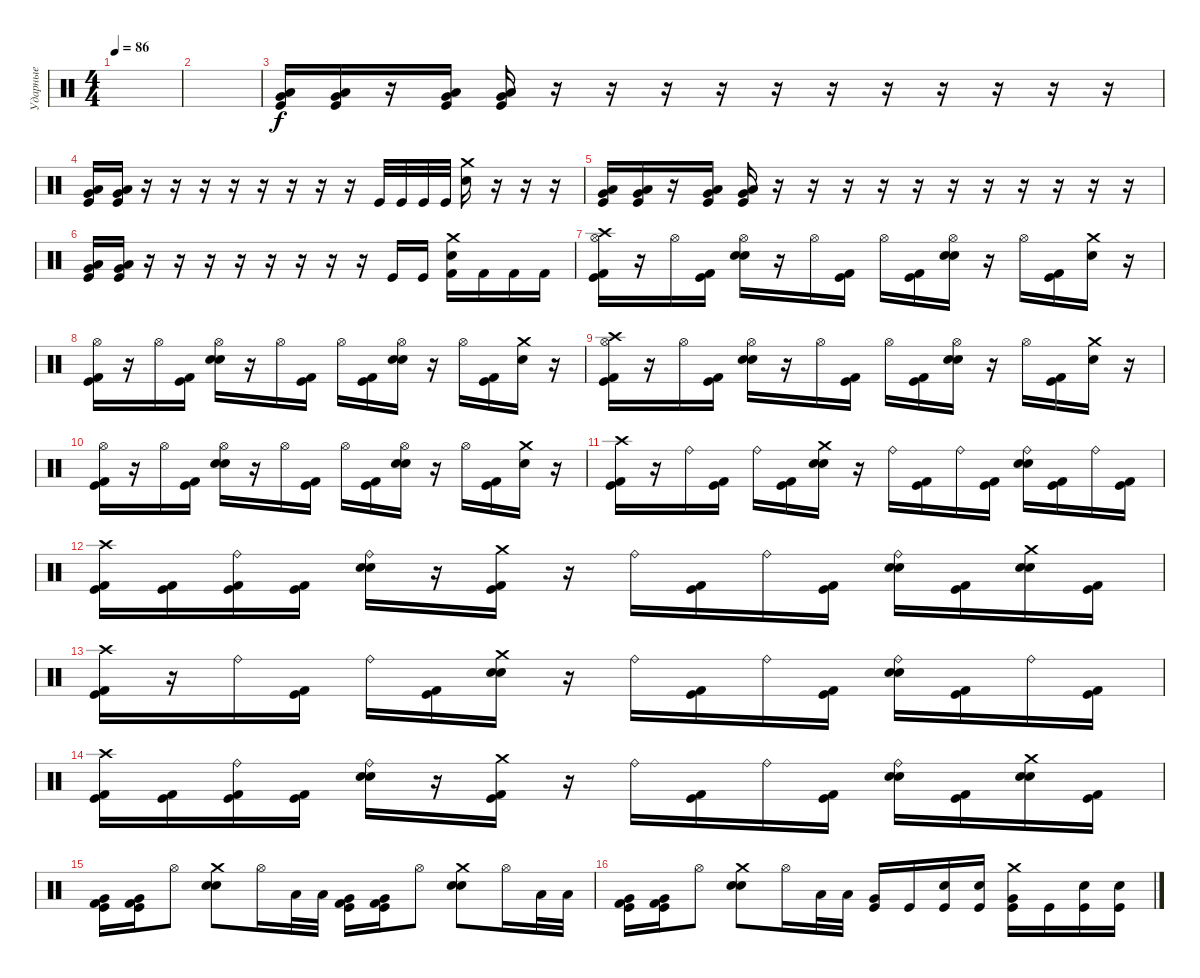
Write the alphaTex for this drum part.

\track ("Ударные" "Ударные") {instrument percussion}
\staff {score}
\articulation defaults
\ts (4 4)
\tempo 86
\clef neutral
\ks c
|
|
("Very Low Tom (hit)" "Low Floor Tom (hit)" "Kick (hit)").16 ("Very Low Tom (hit)" "Low Floor Tom (hit)" "Kick (hit)").16 r.16 ("Very Low Tom (hit)" "Low Floor Tom (hit)" "Kick (hit)").16 ("Very Low Tom (hit)" "Low Floor Tom (hit)" "Kick (hit)").16 r.16 r.16 r.16 r.16 r.16 r.16 r.16 r.16 r.16 r.16 r.16 |
("Very Low Tom (hit)" "Low Floor Tom (hit)" "Kick (hit)").16 ("Very Low Tom (hit)" "Low Floor Tom (hit)" "Kick (hit)").16 r.16 r.16 r.16 r.16 r.16 r.16 r.16 r.16 "Kick (hit)".32 "Kick (hit)".32 "Kick (hit)".32 "Kick (hit)".32 ("Crash medium (hit)" "Electric Snare (hit)").16 r.16 r.16 r.16 |
("Very Low Tom (hit)" "Low Floor Tom (hit)" "Kick (hit)").16 ("Very Low Tom (hit)" "Low Floor Tom (hit)" "Kick (hit)").16 r.16 ("Very Low Tom (hit)" "Low Floor Tom (hit)" "Kick (hit)").16 ("Very Low Tom (hit)" "Low Floor Tom (hit)" "Kick (hit)").16 r.16 r.16 r.16 r.16 r.16 r.16 r.16 r.16 r.16 r.16 r.16 |
("Very Low Tom (hit)" "Low Floor Tom (hit)" "Kick (hit)").16 ("Very Low Tom (hit)" "Low Floor Tom (hit)" "Kick (hit)").16 r.16 r.16 r.16 r.16 r.16 r.16 r.16 r.16 "Kick (hit)".16 "Kick (hit)".16 ("Electric Snare (hit)" "Crash medium (hit)" "Kick (hit) 2").16 "Kick (hit) 2".16 "Kick (hit) 2".16 "Kick (hit) 2".16 |
("Hi-Hat (open)" "Crash high (hit)" "Kick (hit) 2" "Kick (hit)").16 r.16 "Hi-Hat (open)".16 ("Kick (hit) 2" "Kick (hit)").16 ("Hi-Hat (open)" "Snare (hit)" "Electric Snare (hit)").16 r.16 "Hi-Hat (open)".16 ("Kick (hit) 2" "Kick (hit)").16 "Hi-Hat (open)".16 ("Kick (hit) 2" "Kick (hit)").16 ("Hi-Hat (open)" "Snare (hit)" "Electric Snare (hit)").16 r.16 "Hi-Hat (open)".16 ("Kick (hit) 2" "Kick (hit)").16 ("Crash medium (hit)" "Electric Snare (hit)").16 r.16 |
("Hi-Hat (open)" "Kick (hit) 2" "Kick (hit)").16 r.16 "Hi-Hat (open)".16 ("Kick (hit) 2" "Kick (hit)").16 ("Hi-Hat (open)" "Snare (hit)" "Electric Snare (hit)").16 r.16 "Hi-Hat (open)".16 ("Kick (hit) 2" "Kick (hit)").16 "Hi-Hat (open)".16 ("Kick (hit) 2" "Kick (hit)").16 ("Hi-Hat (open)" "Snare (hit)" "Electric Snare (hit)").16 r.16 "Hi-Hat (open)".16 ("Kick (hit) 2" "Kick (hit)").16 ("Crash medium (hit)" "Electric Snare (hit)").16 r.16 |
("Hi-Hat (open)" "Crash high (hit)" "Kick (hit) 2" "Kick (hit)").16 r.16 "Hi-Hat (open)".16 ("Kick (hit) 2" "Kick (hit)").16 ("Hi-Hat (open)" "Snare (hit)" "Electric Snare (hit)").16 r.16 "Hi-Hat (open)".16 ("Kick (hit) 2" "Kick (hit)").16 "Hi-Hat (open)".16 ("Kick (hit) 2" "Kick (hit)").16 ("Hi-Hat (open)" "Snare (hit)" "Electric Snare (hit)").16 r.16 "Hi-Hat (open)".16 ("Kick (hit) 2" "Kick (hit)").16 ("Crash medium (hit)" "Electric Snare (hit)").16 r.16 |
("Hi-Hat (open)" "Kick (hit) 2" "Kick (hit)").16 r.16 "Hi-Hat (open)".16 ("Kick (hit) 2" "Kick (hit)").16 ("Hi-Hat (open)" "Snare (hit)" "Electric Snare (hit)").16 r.16 "Hi-Hat (open)".16 ("Kick (hit) 2" "Kick (hit)").16 "Hi-Hat (open)".16 ("Kick (hit) 2" "Kick (hit)").16 ("Hi-Hat (open)" "Snare (hit)" "Electric Snare (hit)").16 r.16 "Hi-Hat (open)".16 ("Kick (hit) 2" "Kick (hit)").16 ("Crash medium (hit)" "Electric Snare (hit)").16 r.16 |
("Crash high (hit)" "Kick (hit) 2" "Kick (hit)").16 r.16 "Ride (bell)".16 ("Kick (hit) 2" "Kick (hit)").16 "Ride (bell)".16 ("Kick (hit) 2" "Kick (hit)").16 ("Crash medium (hit)" "Snare (hit)" "Electric Snare (hit)").16 r.16 "Ride (bell)".16 ("Kick (hit) 2" "Kick (hit)").16 "Ride (bell)".16 ("Kick (hit) 2" "Kick (hit)").16 ("Ride (bell)" "Snare (hit)" "Electric Snare (hit)").16 ("Kick (hit) 2" "Kick (hit)").16 "Ride (bell)".16 ("Kick (hit) 2" "Kick (hit)").16 |
("Crash high (hit)" "Kick (hit) 2" "Kick (hit)").16 ("Kick (hit) 2" "Kick (hit)").16 ("Ride (bell)" "Kick (hit) 2" "Kick (hit)").16 ("Kick (hit) 2" "Kick (hit)").16 ("Ride (bell)" "Snare (hit)" "Electric Snare (hit)").16 r.16 ("Crash medium (hit)" "Kick (hit) 2" "Kick (hit)").16 r.16 "Ride (bell)".16 ("Kick (hit) 2" "Kick (hit)").16 "Ride (bell)".16 ("Kick (hit) 2" "Kick (hit)").16 ("Ride (bell)" "Snare (hit)" "Electric Snare (hit)").16 ("Kick (hit) 2" "Kick (hit)").16 ("Crash medium (hit)" "Snare (hit)" "Electric Snare (hit)").16 ("Kick (hit) 2" "Kick (hit)").16 |
("Crash high (hit)" "Kick (hit) 2" "Kick (hit)").16 r.16 "Ride (bell)".16 ("Kick (hit) 2" "Kick (hit)").16 "Ride (bell)".16 ("Kick (hit) 2" "Kick (hit)").16 ("Crash medium (hit)" "Snare (hit)" "Electric Snare (hit)").16 r.16 "Ride (bell)".16 ("Kick (hit) 2" "Kick (hit)").16 "Ride (bell)".16 ("Kick (hit) 2" "Kick (hit)").16 ("Ride (bell)" "Snare (hit)" "Electric Snare (hit)").16 ("Kick (hit) 2" "Kick (hit)").16 "Ride (bell)".16 ("Kick (hit) 2" "Kick (hit)").16 |
("Crash high (hit)" "Kick (hit) 2" "Kick (hit)").16 ("Kick (hit) 2" "Kick (hit)").16 ("Ride (bell)" "Kick (hit) 2" "Kick (hit)").16 ("Kick (hit) 2" "Kick (hit)").16 ("Ride (bell)" "Snare (hit)" "Electric Snare (hit)").16 r.16 ("Crash medium (hit)" "Kick (hit) 2" "Kick (hit)").16 r.16 "Ride (bell)".16 ("Kick (hit) 2" "Kick (hit)").16 "Ride (bell)".16 ("Kick (hit) 2" "Kick (hit)").16 ("Ride (bell)" "Snare (hit)" "Electric Snare (hit)").16 ("Kick (hit) 2" "Kick (hit)").16 ("Crash medium (hit)" "Snare (hit)" "Electric Snare (hit)").16 ("Kick (hit) 2" "Kick (hit)").16 |
("Very Low Tom (hit)" "Kick (hit) 2" "Kick (hit)").16 ("Very Low Tom (hit)" "Kick (hit) 2" "Kick (hit)").16 "Hi-Hat (open)".8 ("Crash medium (hit)" "Electric Snare (hit)" "Snare (hit)").8 "Hi-Hat (open)".16 "Low Tom (hit)".32 "Low Floor Tom (hit)".32 ("Very Low Tom (hit)" "Kick (hit) 2" "Kick (hit)").16 ("Very Low Tom (hit)" "Kick (hit) 2" "Kick (hit)").16 "Hi-Hat (open)".8 ("Crash medium (hit)" "Electric Snare (hit)" "Snare (hit)").8 "Hi-Hat (open)".16 "Low Tom (hit)".32 "Low Floor Tom (hit)".32 |
("Very Low Tom (hit)" "Kick (hit) 2" "Kick (hit)").16 ("Very Low Tom (hit)" "Kick (hit) 2" "Kick (hit)").16 "Hi-Hat (open)".8 ("Crash medium (hit)" "Electric Snare (hit)" "Snare (hit)").8 "Hi-Hat (open)".16 "Low Tom (hit)".32 "Low Floor Tom (hit)".32 ("Very Low Tom (hit)" "Kick (hit)").16 "Kick (hit)".16 ("Snare (hit) 2" "Kick (hit)").16 ("Snare (hit) 2" "Kick (hit)").16 ("Crash medium (hit)" "Very Low Tom (hit)" "Kick (hit)").16 "Kick (hit)".16 ("Snare (hit) 2" "Kick (hit)").16 ("Snare (hit) 2" "Kick (hit)").16
